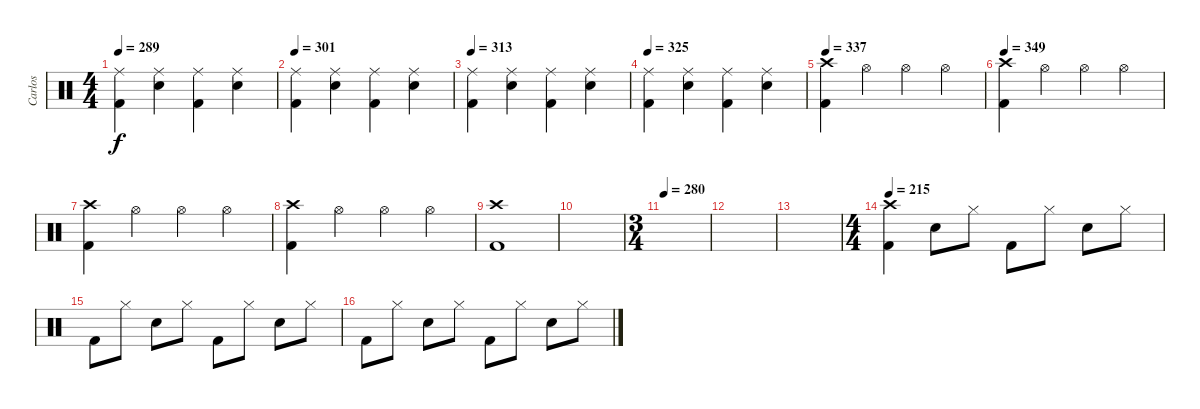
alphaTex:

\track ("Carlos" "Carlos") {instrument percussion}
\staff {score}
\articulation defaults
\ts (4 4)
\tempo 289
\clef neutral
\ks c
("Ride (middle)" "Kick (hit) 2").4{dy f} ("Ride (middle)" "Snare (hit) 2").4 ("Ride (middle)" "Kick (hit) 2").4 ("Ride (middle)" "Snare (hit) 2").4 |
\tempo 301
("Ride (middle)" "Kick (hit) 2").4 ("Ride (middle)" "Snare (hit) 2").4 ("Ride (middle)" "Kick (hit) 2").4 ("Ride (middle)" "Snare (hit) 2").4 |
\tempo 313
("Ride (middle)" "Kick (hit) 2").4 ("Ride (middle)" "Snare (hit) 2").4 ("Ride (middle)" "Kick (hit) 2").4 ("Ride (middle)" "Snare (hit) 2").4 |
\tempo 325
("Ride (middle)" "Kick (hit) 2").4 ("Ride (middle)" "Snare (hit) 2").4 ("Ride (middle)" "Kick (hit) 2").4 ("Ride (middle)" "Snare (hit) 2").4 |
\tempo 337
("Crash high (hit)" "Kick (hit) 2").4 "Hi-Hat (open)".4 "Hi-Hat (open)".4 "Hi-Hat (open)".4 |
\tempo 349
("Crash high (hit)" "Kick (hit) 2").4 "Hi-Hat (open)".4 "Hi-Hat (open)".4 "Hi-Hat (open)".4 |
("Crash high (hit)" "Kick (hit) 2").4 "Hi-Hat (open)".4 "Hi-Hat (open)".4 "Hi-Hat (open)".4 |
("Crash high (hit)" "Kick (hit) 2").4 "Hi-Hat (open)".4 "Hi-Hat (open)".4 "Hi-Hat (open)".4 |
("Crash high (hit)" "Kick (hit) 2").1 |
|
\ts (3 4)
\tempo 280
|
|
|
\ts (4 4)
\tempo 215
("Crash high (hit)" "Kick (hit) 2").4 "Snare (hit) 2".8 "Hi-Hat (closed)".8 "Kick (hit) 2".8 "Hi-Hat (closed)".8 "Snare (hit) 2".8 "Hi-Hat (closed)".8 |
"Kick (hit) 2".8 "Hi-Hat (closed)".8 "Snare (hit) 2".8 "Hi-Hat (closed)".8 "Kick (hit) 2".8 "Hi-Hat (closed)".8 "Snare (hit) 2".8 "Hi-Hat (closed)".8 |
"Kick (hit) 2".8 "Hi-Hat (closed)".8 "Snare (hit) 2".8 "Hi-Hat (closed)".8 "Kick (hit) 2".8 "Hi-Hat (closed)".8 "Snare (hit) 2".8 "Hi-Hat (closed)".8
